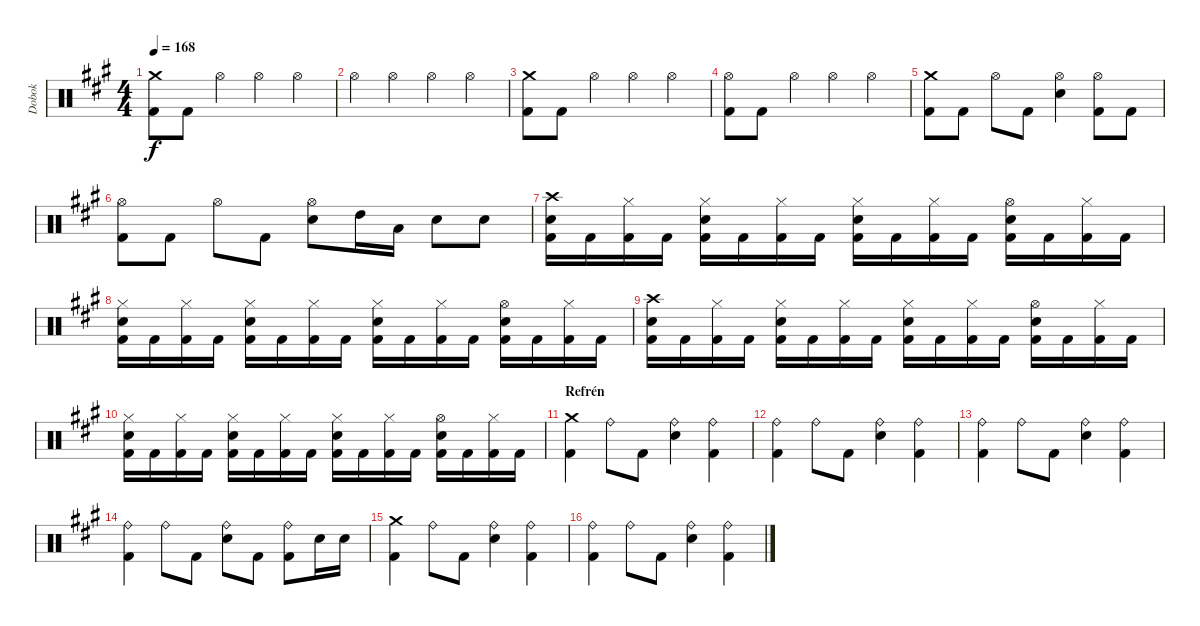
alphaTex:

\track ("Dobok" "Dobok") {instrument percussion}
\staff {score}
\articulation defaults
\ts (4 4)
\tempo 168
\clef neutral
\ks f#minor
("Crash medium (hit)" "Kick (hit) 2").8{dy f} "Kick (hit) 2".8 "Hi-Hat (open)".4 "Hi-Hat (open)".4 "Hi-Hat (open)".4 |
"Hi-Hat (open)".4 "Hi-Hat (open)".4 "Hi-Hat (open)".4 "Hi-Hat (open)".4 |
("Crash medium (hit)" "Kick (hit) 2").8 "Kick (hit) 2".8 "Hi-Hat (open)".4 "Hi-Hat (open)".4 "Hi-Hat (open)".4 |
("Hi-Hat (open)" "Kick (hit) 2").8 "Kick (hit) 2".8 "Hi-Hat (open)".4 "Hi-Hat (open)".4 "Hi-Hat (open)".4 |
("Crash medium (hit)" "Kick (hit) 2").8 "Kick (hit) 2".8 "Hi-Hat (open)".8 "Kick (hit) 2".8 ("Hi-Hat (open)" "Snare (hit) 2").4 ("Hi-Hat (open)" "Kick (hit) 2").8 "Kick (hit) 2".8 |
("Hi-Hat (open)" "Kick (hit) 2").8 "Kick (hit) 2".8 "Hi-Hat (open)".8 "Kick (hit) 2".8 ("Hi-Hat (open)" "Snare (hit) 2").8 "High Tom (hit)".16 "Low Tom (hit)".16 "Snare (hit) 2".8 "Snare (hit) 2".8 |
("Crash high (hit)" "Snare (hit) 2" "Kick (hit) 2").16 "Kick (hit) 2".16 ("Hi-Hat (closed)" "Kick (hit) 2").16 "Kick (hit) 2".16 ("Hi-Hat (closed)" "Snare (hit) 2" "Kick (hit) 2").16 "Kick (hit) 2".16 ("Hi-Hat (closed)" "Kick (hit) 2").16 "Kick (hit) 2".16 ("Hi-Hat (closed)" "Snare (hit) 2" "Kick (hit) 2").16 "Kick (hit) 2".16 ("Hi-Hat (closed)" "Kick (hit) 2").16 "Kick (hit) 2".16 ("Hi-Hat (open)" "Snare (hit) 2" "Kick (hit) 2").16 "Kick (hit) 2".16 ("Hi-Hat (closed)" "Kick (hit) 2").16 "Kick (hit) 2".16 |
("Hi-Hat (closed)" "Snare (hit) 2" "Kick (hit) 2").16 "Kick (hit) 2".16 ("Hi-Hat (closed)" "Kick (hit) 2").16 "Kick (hit) 2".16 ("Hi-Hat (closed)" "Snare (hit) 2" "Kick (hit) 2").16 "Kick (hit) 2".16 ("Hi-Hat (closed)" "Kick (hit) 2").16 "Kick (hit) 2".16 ("Hi-Hat (closed)" "Snare (hit) 2" "Kick (hit) 2").16 "Kick (hit) 2".16 ("Hi-Hat (closed)" "Kick (hit) 2").16 "Kick (hit) 2".16 ("Hi-Hat (open)" "Snare (hit) 2" "Kick (hit) 2").16 "Kick (hit) 2".16 ("Hi-Hat (closed)" "Kick (hit) 2").16 "Kick (hit) 2".16 |
("Crash high (hit)" "Snare (hit) 2" "Kick (hit) 2").16 "Kick (hit) 2".16 ("Hi-Hat (closed)" "Kick (hit) 2").16 "Kick (hit) 2".16 ("Hi-Hat (closed)" "Snare (hit) 2" "Kick (hit) 2").16 "Kick (hit) 2".16 ("Hi-Hat (closed)" "Kick (hit) 2").16 "Kick (hit) 2".16 ("Hi-Hat (closed)" "Snare (hit) 2" "Kick (hit) 2").16 "Kick (hit) 2".16 ("Hi-Hat (closed)" "Kick (hit) 2").16 "Kick (hit) 2".16 ("Hi-Hat (open)" "Snare (hit) 2" "Kick (hit) 2").16 "Kick (hit) 2".16 ("Hi-Hat (closed)" "Kick (hit) 2").16 "Kick (hit) 2".16 |
("Hi-Hat (closed)" "Snare (hit) 2" "Kick (hit) 2").16 "Kick (hit) 2".16 ("Hi-Hat (closed)" "Kick (hit) 2").16 "Kick (hit) 2".16 ("Hi-Hat (closed)" "Snare (hit) 2" "Kick (hit) 2").16 "Kick (hit) 2".16 ("Hi-Hat (closed)" "Kick (hit) 2").16 "Kick (hit) 2".16 ("Hi-Hat (closed)" "Snare (hit) 2" "Kick (hit) 2").16 "Kick (hit) 2".16 ("Hi-Hat (closed)" "Kick (hit) 2").16 "Kick (hit) 2".16 ("Hi-Hat (open)" "Snare (hit) 2" "Kick (hit) 2").16 "Kick (hit) 2".16 ("Hi-Hat (closed)" "Kick (hit) 2").16 "Kick (hit) 2".16 |
\section ("" "Refrén")
("Crash medium (hit)" "Kick (hit) 2").4 "Ride (bell)".8 "Kick (hit) 2".8 ("Ride (bell)" "Snare (hit) 2").4 ("Ride (bell)" "Kick (hit) 2").4 |
("Ride (bell)" "Kick (hit) 2").4 "Ride (bell)".8 "Kick (hit) 2".8 ("Ride (bell)" "Snare (hit) 2").4 ("Ride (bell)" "Kick (hit) 2").4 |
("Ride (bell)" "Kick (hit) 2").4 "Ride (bell)".8 "Kick (hit) 2".8 ("Ride (bell)" "Snare (hit) 2").4 ("Ride (bell)" "Kick (hit) 2").4 |
("Ride (bell)" "Kick (hit) 2").4 "Ride (bell)".8 "Kick (hit) 2".8 ("Ride (bell)" "Snare (hit) 2").8 "Kick (hit) 2".8 ("Ride (bell)" "Kick (hit) 2").8 "Snare (hit) 2".16 "Snare (hit) 2".16 |
("Crash medium (hit)" "Kick (hit) 2").4 "Ride (bell)".8 "Kick (hit) 2".8 ("Ride (bell)" "Snare (hit) 2").4 ("Ride (bell)" "Kick (hit) 2").4 |
("Ride (bell)" "Kick (hit) 2").4 "Ride (bell)".8 "Kick (hit) 2".8 ("Ride (bell)" "Snare (hit) 2").4 ("Ride (bell)" "Kick (hit) 2").4
